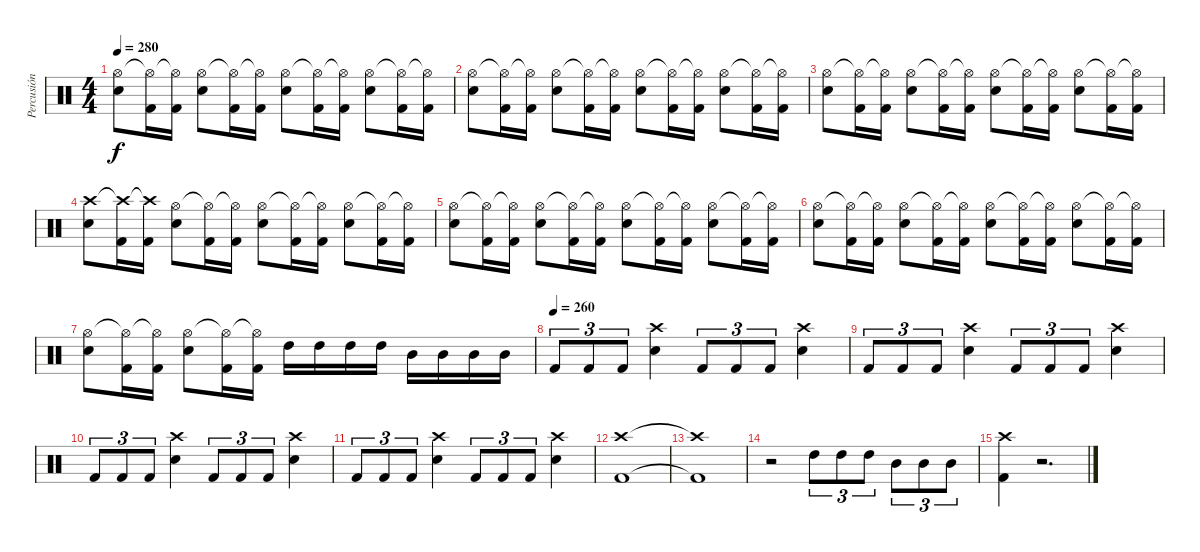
\track ("Percusión" "Percusión") {instrument percussion}
\staff {score}
\articulation defaults
\ts (4 4)
\tempo 280
\clef neutral
\ks c
("Snare (hit) 2" "Hi-Hat (open)").8{dy f} ("Kick (hit) 2" "Hi-Hat (open)"{t}).16 ("Kick (hit) 2" "Hi-Hat (open)"{t}).16 ("Snare (hit) 2" "Hi-Hat (open)").8 ("Kick (hit) 2" "Hi-Hat (open)"{t}).16 ("Kick (hit) 2" "Hi-Hat (open)"{t}).16 ("Snare (hit) 2" "Hi-Hat (open)").8 ("Kick (hit) 2" "Hi-Hat (open)"{t}).16 ("Kick (hit) 2" "Hi-Hat (open)"{t}).16 ("Snare (hit) 2" "Hi-Hat (open)").8 ("Kick (hit) 2" "Hi-Hat (open)"{t}).16 ("Kick (hit) 2" "Hi-Hat (open)"{t}).16 |
("Snare (hit) 2" "Hi-Hat (open)").8 ("Kick (hit) 2" "Hi-Hat (open)"{t}).16 ("Kick (hit) 2" "Hi-Hat (open)"{t}).16 ("Snare (hit) 2" "Hi-Hat (open)").8 ("Kick (hit) 2" "Hi-Hat (open)"{t}).16 ("Kick (hit) 2" "Hi-Hat (open)"{t}).16 ("Snare (hit) 2" "Hi-Hat (open)").8 ("Kick (hit) 2" "Hi-Hat (open)"{t}).16 ("Kick (hit) 2" "Hi-Hat (open)"{t}).16 ("Snare (hit) 2" "Hi-Hat (open)").8 ("Kick (hit) 2" "Hi-Hat (open)"{t}).16 ("Kick (hit) 2" "Hi-Hat (open)"{t}).16 |
("Snare (hit) 2" "Hi-Hat (open)").8 ("Kick (hit) 2" "Hi-Hat (open)"{t}).16 ("Kick (hit) 2" "Hi-Hat (open)"{t}).16 ("Snare (hit) 2" "Hi-Hat (open)").8 ("Kick (hit) 2" "Hi-Hat (open)"{t}).16 ("Kick (hit) 2" "Hi-Hat (open)"{t}).16 ("Snare (hit) 2" "Hi-Hat (open)").8 ("Kick (hit) 2" "Hi-Hat (open)"{t}).16 ("Kick (hit) 2" "Hi-Hat (open)"{t}).16 ("Snare (hit) 2" "Hi-Hat (open)").8 ("Kick (hit) 2" "Hi-Hat (open)"{t}).16 ("Kick (hit) 2" "Hi-Hat (open)"{t}).16 |
("Snare (hit) 2" "Crash high (hit)").8 ("Kick (hit) 2" "Crash high (hit)"{t}).16 ("Kick (hit) 2" "Crash high (hit)"{t}).16 ("Snare (hit) 2" "Hi-Hat (open)").8 ("Kick (hit) 2" "Hi-Hat (open)"{t}).16 ("Kick (hit) 2" "Hi-Hat (open)"{t}).16 ("Snare (hit) 2" "Hi-Hat (open)").8 ("Kick (hit) 2" "Hi-Hat (open)"{t}).16 ("Kick (hit) 2" "Hi-Hat (open)"{t}).16 ("Snare (hit) 2" "Hi-Hat (open)").8 ("Kick (hit) 2" "Hi-Hat (open)"{t}).16 ("Kick (hit) 2" "Hi-Hat (open)"{t}).16 |
("Snare (hit) 2" "Hi-Hat (open)").8 ("Kick (hit) 2" "Hi-Hat (open)"{t}).16 ("Kick (hit) 2" "Hi-Hat (open)"{t}).16 ("Snare (hit) 2" "Hi-Hat (open)").8 ("Kick (hit) 2" "Hi-Hat (open)"{t}).16 ("Kick (hit) 2" "Hi-Hat (open)"{t}).16 ("Snare (hit) 2" "Hi-Hat (open)").8 ("Kick (hit) 2" "Hi-Hat (open)"{t}).16 ("Kick (hit) 2" "Hi-Hat (open)"{t}).16 ("Snare (hit) 2" "Hi-Hat (open)").8 ("Kick (hit) 2" "Hi-Hat (open)"{t}).16 ("Kick (hit) 2" "Hi-Hat (open)"{t}).16 |
("Snare (hit) 2" "Hi-Hat (open)").8 ("Kick (hit) 2" "Hi-Hat (open)"{t}).16 ("Kick (hit) 2" "Hi-Hat (open)"{t}).16 ("Snare (hit) 2" "Hi-Hat (open)").8 ("Kick (hit) 2" "Hi-Hat (open)"{t}).16 ("Kick (hit) 2" "Hi-Hat (open)"{t}).16 ("Snare (hit) 2" "Hi-Hat (open)").8 ("Kick (hit) 2" "Hi-Hat (open)"{t}).16 ("Kick (hit) 2" "Hi-Hat (open)"{t}).16 ("Snare (hit) 2" "Hi-Hat (open)").8 ("Kick (hit) 2" "Hi-Hat (open)"{t}).16 ("Kick (hit) 2" "Hi-Hat (open)"{t}).16 |
("Snare (hit) 2" "Hi-Hat (open)").8 ("Kick (hit) 2" "Hi-Hat (open)"{t}).16 ("Kick (hit) 2" "Hi-Hat (open)"{t}).16 ("Snare (hit) 2" "Hi-Hat (open)").8 ("Kick (hit) 2" "Hi-Hat (open)"{t}).16 ("Kick (hit) 2" "Hi-Hat (open)"{t}).16 "High Tom (hit)".16 "High Tom (hit)".16 "High Tom (hit)".16 "High Tom (hit)".16 "Mid Tom (hit)".16 "Mid Tom (hit)".16 "Mid Tom (hit)".16 "Mid Tom (hit)".16 |
\tempo (260)
"Kick (hit) 2".8{tu (3 2)} "Kick (hit) 2".8{tu (3 2)} "Kick (hit) 2".8{tu (3 2)} ("Snare (hit) 2" "Crash high (hit)").4 "Kick (hit) 2".8{tu (3 2)} "Kick (hit) 2".8{tu (3 2)} "Kick (hit) 2".8{tu (3 2)} ("Snare (hit) 2" "Crash high (hit)").4 |
"Kick (hit) 2".8{tu (3 2)} "Kick (hit) 2".8{tu (3 2)} "Kick (hit) 2".8{tu (3 2)} ("Snare (hit) 2" "Crash high (hit)").4 "Kick (hit) 2".8{tu (3 2)} "Kick (hit) 2".8{tu (3 2)} "Kick (hit) 2".8{tu (3 2)} ("Snare (hit) 2" "Crash high (hit)").4 |
"Kick (hit) 2".8{tu (3 2)} "Kick (hit) 2".8{tu (3 2)} "Kick (hit) 2".8{tu (3 2)} ("Snare (hit) 2" "Crash high (hit)").4 "Kick (hit) 2".8{tu (3 2)} "Kick (hit) 2".8{tu (3 2)} "Kick (hit) 2".8{tu (3 2)} ("Snare (hit) 2" "Crash high (hit)").4 |
"Kick (hit) 2".8{tu (3 2)} "Kick (hit) 2".8{tu (3 2)} "Kick (hit) 2".8{tu (3 2)} ("Snare (hit) 2" "Crash high (hit)").4 "Kick (hit) 2".8{tu (3 2)} "Kick (hit) 2".8{tu (3 2)} "Kick (hit) 2".8{tu (3 2)} ("Snare (hit) 2" "Crash high (hit)").4 |
("Kick (hit) 2" "Crash high (hit)").1 |
("Kick (hit) 2"{t} "Crash high (hit)"{t}).1 |
r.2 "High Tom (hit)".8{tu (3 2)} "High Tom (hit)".8{tu (3 2)} "High Tom (hit)".8{tu (3 2)} "Mid Tom (hit)".8{tu (3 2)} "Mid Tom (hit)".8{tu (3 2)} "Mid Tom (hit)".8{tu (3 2)} |
("Kick (hit) 2" "Crash high (hit)").4 r.2{d}
